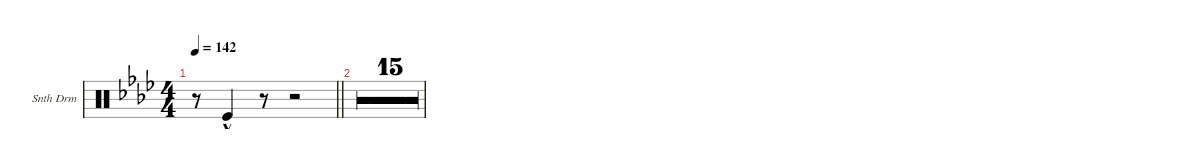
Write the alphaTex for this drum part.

\defaultSystemsLayout 4
\hideDynamics
\bracketExtendMode groupsimilarinstruments
\firstSystemTrackNameOrientation horizontal
\otherSystemsTrackNameOrientation horizontal
\track ("Synth Drum" "Snth Drm") {multiBarRest instrument percussion}
\staff {score}
\articulation defaults
\ts (4 4)
\tempo 142
\clef neutral
\barLineRight lightlight
\ks ab
r.8{dy f} "Kick (hit)"{hac}.4 r.8 r.2 |
r.1 |
r.1 |
r.1 |
r.1 |
r.1 |
r.1 |
r.1 |
\barLineRight lightlight
r.1 |
r.1 |
r.1 |
r.1 |
r.1 |
r.1 |
r.1 |
r.1
